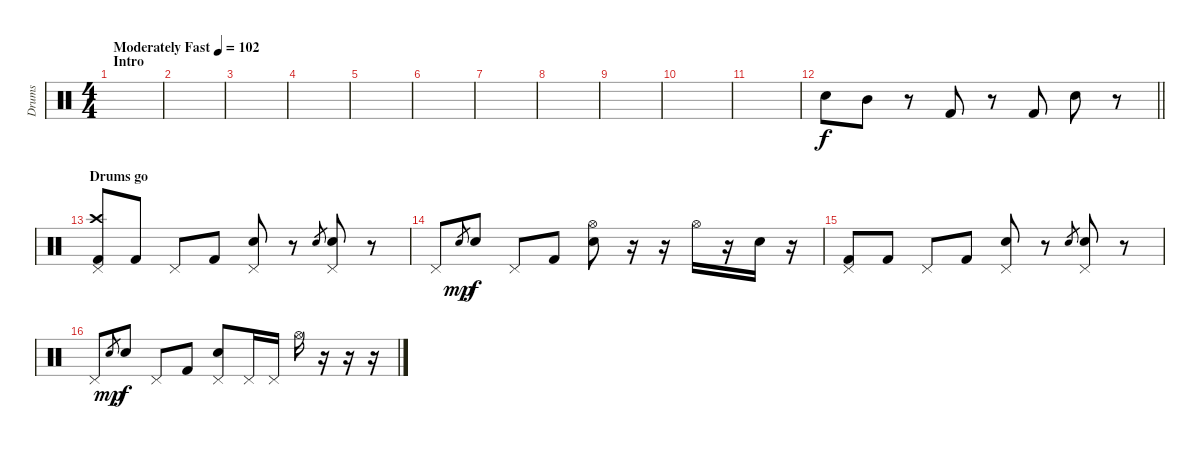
\track ("Drums" "Drums") {instrument percussion}
\staff {score}
\articulation defaults
\ts (4 4)
\section ("" "Intro")
\tempo (102 "Moderately Fast")
\clef neutral
\ks c
|
|
|
|
|
|
|
|
|
|
|
\barLineRight lightlight "Snare (hit) 2".8 "Mid Tom (hit)".8
r.8 "Kick (hit) 2".8 r.8 "Kick (hit) 2".8 "Snare (hit) 2".8 r.8 |
\section ("" "Drums go")
("Crash high (hit)" "Kick (hit) 2" "Pedal Hi-Hat (hit)").8 "Kick (hit) 2".8 "Pedal Hi-Hat (hit)".8 "Kick (hit) 2".8 ("Snare (hit) 2" "Pedal Hi-Hat (hit)").8 r.8 "Snare (hit) 2".8{gr} ("Snare (hit) 2" "Pedal Hi-Hat (hit)").8 r.8 |
"Pedal Hi-Hat (hit)".8 "Electric Snare (hit)".8{gr dy mp} "Snare (hit) 2".8{dy f} "Pedal Hi-Hat (hit)".8 "Kick (hit) 2".8 ("Snare (hit) 2" "Hi-Hat (open)").8 r.16 r.16 "Hi-Hat (open)".16 r.16 "Snare (hit) 2".16 r.16 |
("Kick (hit) 2" "Pedal Hi-Hat (hit)").8 "Kick (hit) 2".8 "Pedal Hi-Hat (hit)".8 "Kick (hit) 2".8 ("Snare (hit) 2" "Pedal Hi-Hat (hit)").8 r.8 "Snare (hit) 2".8{gr} ("Snare (hit) 2" "Pedal Hi-Hat (hit)").8 r.8 |
"Pedal Hi-Hat (hit)".8 "Electric Snare (hit)".8{gr dy mp} "Snare (hit) 2".8{dy f} "Pedal Hi-Hat (hit)".8 "Kick (hit) 2".8 ("Snare (hit) 2" "Pedal Hi-Hat (hit)").8 "Pedal Hi-Hat (hit)".16 "Pedal Hi-Hat (hit)".16 "Hi-Hat (open)".16 r.16 r.16 r.16
